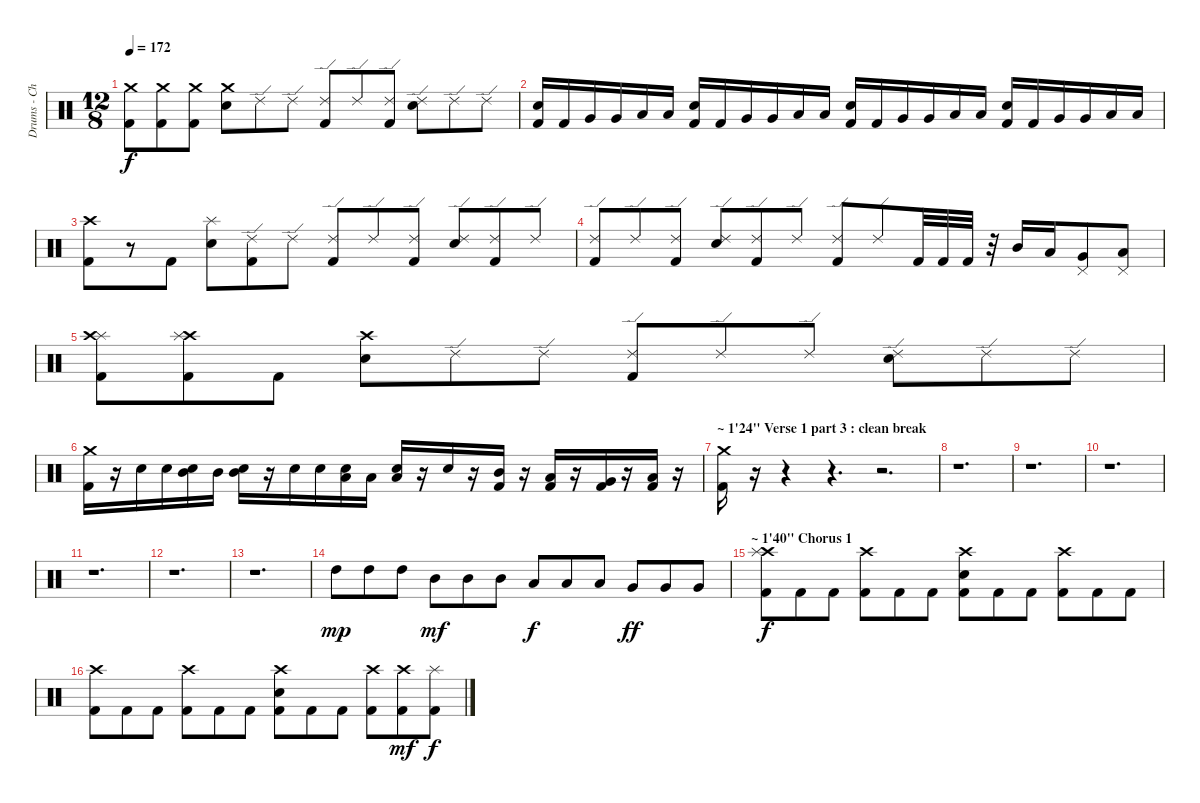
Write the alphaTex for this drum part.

\track ("Drums - Christopher Merzinsky" "Drums - Ch") {instrument percussion}
\staff {score}
\articulation defaults
\ts (12 8)
\tempo 172
\clef neutral
\ks c
("Kick (hit) 2" "Crash medium (hit)").8{dy f} ("Kick (hit) 2" "Crash medium (hit)").8 ("Kick (hit) 2" "Crash medium (hit)").8 ("Crash medium (hit)" "Electric Snare (hit)").8 "Ride (edge) 2".8 "Ride (edge) 2".8 ("Kick (hit) 2" "Ride (edge) 2").8 "Ride (edge) 2".8 ("Kick (hit) 2" "Ride (edge) 2").8 ("Electric Snare (hit)" "Ride (edge) 2").8 "Ride (edge) 2".8 "Ride (edge) 2".8 |
("Electric Snare (hit)" "Kick (hit) 2").16 "Kick (hit) 2".16 "Very Low Tom (hit)".16 "Very Low Tom (hit)".16 "Low Floor Tom (hit)".16 "Low Floor Tom (hit)".16 ("Electric Snare (hit)" "Kick (hit) 2").16 "Kick (hit) 2".16 "Very Low Tom (hit)".16 "Very Low Tom (hit)".16 "Low Floor Tom (hit)".16 "Low Floor Tom (hit)".16 ("Electric Snare (hit)" "Kick (hit) 2").16 "Kick (hit) 2".16 "Very Low Tom (hit)".16 "Very Low Tom (hit)".16 "Low Floor Tom (hit)".16 "Low Floor Tom (hit)".16 ("Electric Snare (hit)" "Kick (hit) 2").16 "Kick (hit) 2".16 "Very Low Tom (hit)".16 "Very Low Tom (hit)".16 "Low Floor Tom (hit)".16 "Low Floor Tom (hit)".16 |
("Crash high (hit)" "Kick (hit) 2").8 r.8 "Kick (hit) 2".8 ("Splash (hit)" "Electric Snare (hit)").8 ("Kick (hit) 2" "Ride (edge) 2").8 "Ride (edge) 2".8 ("Kick (hit) 2" "Ride (edge) 2").8 "Ride (edge) 2".8 ("Kick (hit) 2" "Ride (edge) 2").8 ("Electric Snare (hit)" "Ride (edge) 2").8 ("Kick (hit) 2" "Ride (edge) 2").8 "Ride (edge) 2".8 |
("Kick (hit) 2" "Ride (edge) 2").8 "Ride (edge) 2".8 ("Kick (hit) 2" "Ride (edge) 2").8 ("Electric Snare (hit)" "Ride (edge) 2").8 ("Ride (edge) 2" "Kick (hit) 2").8 "Ride (edge) 2".8 ("Kick (hit) 2" "Ride (edge) 2").8 "Ride (edge) 2".8 "Kick (hit) 2".32 "Kick (hit) 2".32 "Kick (hit) 2".32 r.32 "Mid Tom (hit)".16 "Low Tom (hit)".16 ("Very Low Tom (hit)" "Pedal Hi-Hat (hit)").8 ("Low Floor Tom (hit)" "Pedal Hi-Hat (hit)").8 |
("Kick (hit) 2" "Splash (hit)" "Crash high (hit)").8 ("Kick (hit) 2" "Crash high (hit)" "Splash (hit)").8 "Kick (hit) 2".8 ("Electric Snare (hit)" "Crash high (hit)").8 "Ride (edge) 2".8 "Ride (edge) 2".8 ("Kick (hit) 2" "Ride (edge) 2").8 "Ride (edge) 2".8 "Ride (edge) 2".8 ("Electric Snare (hit)" "Ride (edge) 2").8 "Ride (edge) 2".8 "Ride (edge) 2".8 |
("Kick (hit) 2" "Crash medium (hit)").16 r.16 "Electric Snare (hit)".16 "Electric Snare (hit)".16 ("Electric Snare (hit)" "Mid Tom (hit)").16 "Mid Tom (hit)".16 ("Electric Snare (hit)" "Mid Tom (hit)").16 r.16 "Snare (hit) 2".16 "Snare (hit) 2".16 ("Snare (hit) 2" "Low Tom (hit)").16 "Low Tom (hit)".16 ("Snare (hit) 2" "Low Tom (hit)").16 r.16 "Electric Snare (hit)".16 r.16 ("Kick (hit) 2" "Mid Tom (hit)").16 r.16 ("Kick (hit) 2" "Low Tom (hit)").16 r.16 ("Kick (hit) 2" "Very Low Tom (hit)").16 r.16 ("Kick (hit) 2" "Low Floor Tom (hit)").16 r.16 |
\section ("" "~ 1'24\" Verse 1 part 3 : clean break")
("Crash medium (hit)" "Kick (hit) 2").16 r.16 r.4 r.4{d} r.2{d} |
r.1{d} |
r.1{d} |
r.1{d} |
r.1{d} |
r.1{d} |
r.1{d} |
"High Tom (hit)".8{dy mp} "High Tom (hit)".8 "High Tom (hit)".8 "Mid Tom (hit)".8{dy mf} "Mid Tom (hit)".8 "Mid Tom (hit)".8 "Low Tom (hit)".8{dy f} "Low Tom (hit)".8 "Low Tom (hit)".8 "Very Low Tom (hit)".8{dy ff} "Very Low Tom (hit)".8 "Very Low Tom (hit)".8 |
\section ("" "~ 1'40\" Chorus 1 ")
("Kick (hit) 2" "Crash high (hit)" "Splash (hit)").8{dy f} "Kick (hit) 2".8 "Kick (hit) 2".8 ("Kick (hit) 2" "Crash high (hit)").8 "Kick (hit) 2".8 "Kick (hit) 2".8 ("Electric Snare (hit)" "Kick (hit) 2" "Crash high (hit)").8 "Kick (hit) 2".8 "Kick (hit) 2".8 ("Kick (hit) 2" "Crash high (hit)").8 "Kick (hit) 2".8 "Kick (hit) 2".8 |
("Kick (hit) 2" "Crash high (hit)").8 "Kick (hit) 2".8 "Kick (hit) 2".8 ("Kick (hit) 2" "Crash high (hit)").8 "Kick (hit) 2".8 "Kick (hit) 2".8 ("Electric Snare (hit)" "Kick (hit) 2" "Crash high (hit)").8 "Kick (hit) 2".8 "Kick (hit) 2".8 ("Kick (hit) 2" "Crash high (hit)").8 ("Kick (hit) 2" "Crash high (hit)").8{dy mf} ("Kick (hit) 2" "Splash (hit)").8{dy f}
